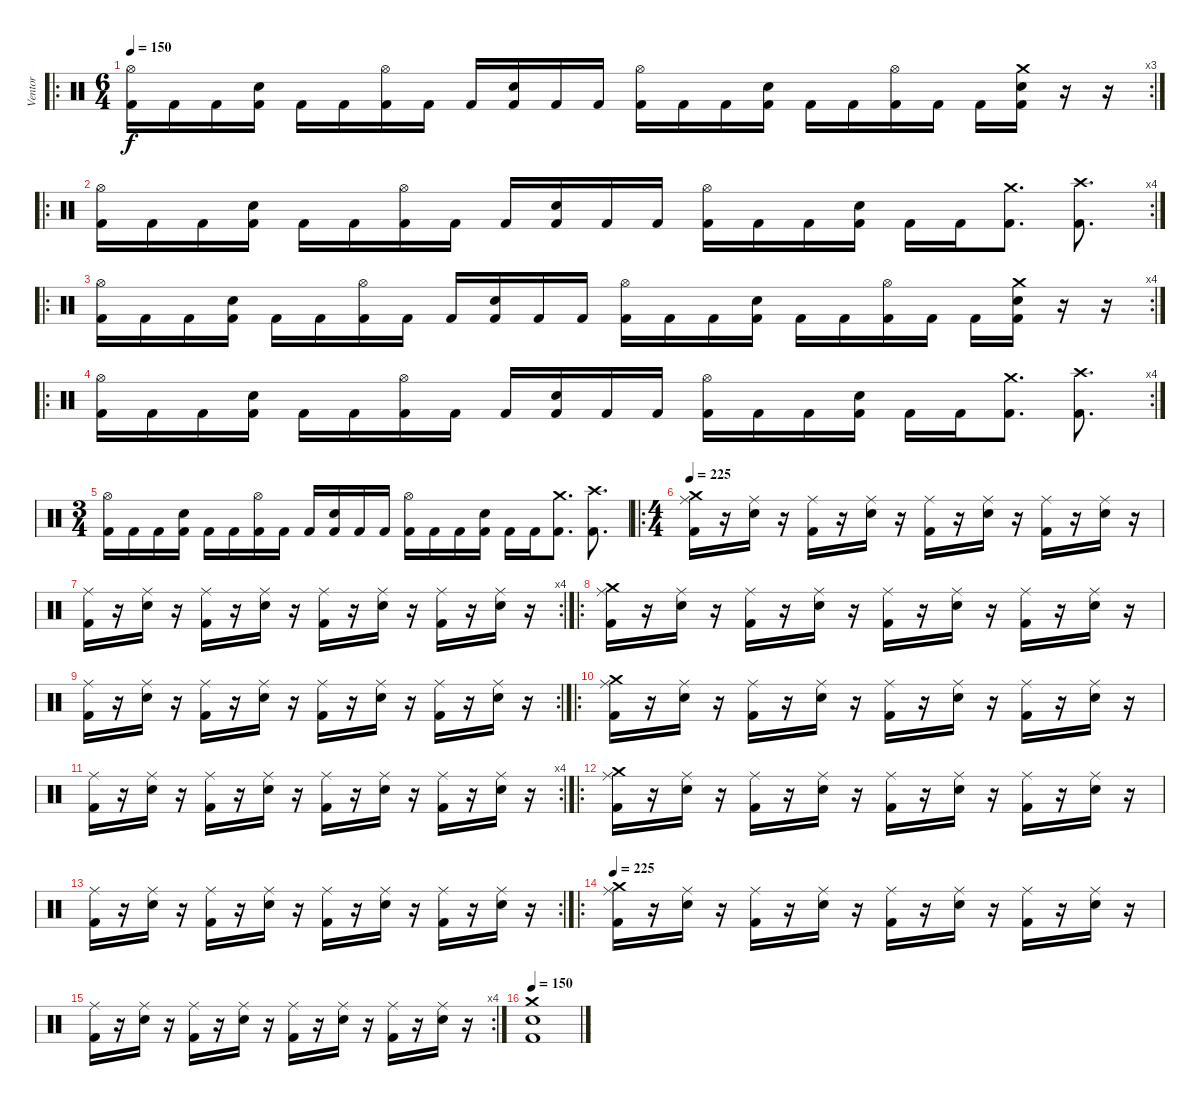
\track ("Ventor" "Ventor") {instrument percussion}
\staff {score}
\articulation defaults
\ro
\rc 3
\ts (6 4)
\tempo 150
\clef neutral
\ks c
("Hi-Hat (open)" "Kick (hit) 2").16{dy f} "Kick (hit) 2".16 "Kick (hit) 2".16 ("Snare (hit) 2" "Kick (hit) 2").16 "Kick (hit) 2".16 "Kick (hit) 2".16 ("Hi-Hat (open)" "Kick (hit) 2").16 "Kick (hit) 2".16 "Kick (hit) 2".16 ("Snare (hit) 2" "Kick (hit) 2").16 "Kick (hit) 2".16 "Kick (hit) 2".16 ("Hi-Hat (open)" "Kick (hit) 2").16 "Kick (hit) 2".16 "Kick (hit) 2".16 ("Snare (hit) 2" "Kick (hit) 2").16 "Kick (hit) 2".16 "Kick (hit) 2".16 ("Hi-Hat (open)" "Kick (hit) 2").16 "Kick (hit) 2".16 "Kick (hit) 2".16 ("Crash medium (hit)" "Snare (hit) 2" "Kick (hit) 2").16 r.16 r.16 |
\ro
\rc 4
("Hi-Hat (open)" "Kick (hit) 2").16 "Kick (hit) 2".16 "Kick (hit) 2".16 ("Snare (hit) 2" "Kick (hit) 2").16 "Kick (hit) 2".16 "Kick (hit) 2".16 ("Hi-Hat (open)" "Kick (hit) 2").16 "Kick (hit) 2".16 "Kick (hit) 2".16 ("Snare (hit) 2" "Kick (hit) 2").16 "Kick (hit) 2".16 "Kick (hit) 2".16 ("Hi-Hat (open)" "Kick (hit) 2").16 "Kick (hit) 2".16 "Kick (hit) 2".16 ("Snare (hit) 2" "Kick (hit) 2").16 "Kick (hit) 2".16 "Kick (hit) 2".16 ("Crash medium (hit)" "Kick (hit) 2").8{d} ("Crash high (hit)" "Kick (hit) 2").8{d} |
\ro
\rc 4
("Hi-Hat (open)" "Kick (hit) 2").16 "Kick (hit) 2".16 "Kick (hit) 2".16 ("Snare (hit) 2" "Kick (hit) 2").16 "Kick (hit) 2".16 "Kick (hit) 2".16 ("Hi-Hat (open)" "Kick (hit) 2").16 "Kick (hit) 2".16 "Kick (hit) 2".16 ("Snare (hit) 2" "Kick (hit) 2").16 "Kick (hit) 2".16 "Kick (hit) 2".16 ("Hi-Hat (open)" "Kick (hit) 2").16 "Kick (hit) 2".16 "Kick (hit) 2".16 ("Snare (hit) 2" "Kick (hit) 2").16 "Kick (hit) 2".16 "Kick (hit) 2".16 ("Hi-Hat (open)" "Kick (hit) 2").16 "Kick (hit) 2".16 "Kick (hit) 2".16 ("Crash medium (hit)" "Snare (hit) 2" "Kick (hit) 2").16 r.16 r.16 |
\ro
\rc 4
("Hi-Hat (open)" "Kick (hit) 2").16 "Kick (hit) 2".16 "Kick (hit) 2".16 ("Snare (hit) 2" "Kick (hit) 2").16 "Kick (hit) 2".16 "Kick (hit) 2".16 ("Hi-Hat (open)" "Kick (hit) 2").16 "Kick (hit) 2".16 "Kick (hit) 2".16 ("Snare (hit) 2" "Kick (hit) 2").16 "Kick (hit) 2".16 "Kick (hit) 2".16 ("Hi-Hat (open)" "Kick (hit) 2").16 "Kick (hit) 2".16 "Kick (hit) 2".16 ("Snare (hit) 2" "Kick (hit) 2").16 "Kick (hit) 2".16 "Kick (hit) 2".16 ("Crash medium (hit)" "Kick (hit) 2").8{d} ("Crash high (hit)" "Kick (hit) 2").8{d} |
\ts (3 4)
("Hi-Hat (open)" "Kick (hit) 2").16 "Kick (hit) 2".16 "Kick (hit) 2".16 ("Snare (hit) 2" "Kick (hit) 2").16 "Kick (hit) 2".16 "Kick (hit) 2".16 ("Hi-Hat (open)" "Kick (hit) 2").16 "Kick (hit) 2".16 "Kick (hit) 2".16 ("Snare (hit) 2" "Kick (hit) 2").16 "Kick (hit) 2".16 "Kick (hit) 2".16 ("Hi-Hat (open)" "Kick (hit) 2").16 "Kick (hit) 2".16 "Kick (hit) 2".16 ("Snare (hit) 2" "Kick (hit) 2").16 "Kick (hit) 2".16 "Kick (hit) 2".16 ("Crash medium (hit)" "Kick (hit) 2").8{d} ("Crash high (hit)" "Kick (hit) 2").8{d} |
\ro
\ts (4 4)
\tempo 225
("Crash medium (hit)" "Ride (middle)" "Kick (hit) 2").16 r.16 ("Ride (middle)" "Snare (hit) 2").16 r.16 ("Ride (middle)" "Kick (hit) 2").16 r.16 ("Ride (middle)" "Snare (hit) 2").16 r.16 ("Ride (middle)" "Kick (hit) 2").16 r.16 ("Ride (middle)" "Snare (hit) 2").16 r.16 ("Ride (middle)" "Kick (hit) 2").16 r.16 ("Ride (middle)" "Snare (hit) 2").16 r.16 |
\rc 4
("Ride (middle)" "Kick (hit) 2").16 r.16 ("Ride (middle)" "Snare (hit) 2").16 r.16 ("Ride (middle)" "Kick (hit) 2").16 r.16 ("Ride (middle)" "Snare (hit) 2").16 r.16 ("Ride (middle)" "Kick (hit) 2").16 r.16 ("Ride (middle)" "Snare (hit) 2").16 r.16 ("Ride (middle)" "Kick (hit) 2").16 r.16 ("Ride (middle)" "Snare (hit) 2").16 r.16 |
\ro
("Crash medium (hit)" "Ride (middle)" "Kick (hit) 2").16 r.16 ("Ride (middle)" "Snare (hit) 2").16 r.16 ("Ride (middle)" "Kick (hit) 2").16 r.16 ("Ride (middle)" "Snare (hit) 2").16 r.16 ("Ride (middle)" "Kick (hit) 2").16 r.16 ("Ride (middle)" "Snare (hit) 2").16 r.16 ("Ride (middle)" "Kick (hit) 2").16 r.16 ("Ride (middle)" "Snare (hit) 2").16 r.16 |
\rc 2
("Ride (middle)" "Kick (hit) 2").16 r.16 ("Ride (middle)" "Snare (hit) 2").16 r.16 ("Ride (middle)" "Kick (hit) 2").16 r.16 ("Ride (middle)" "Snare (hit) 2").16 r.16 ("Ride (middle)" "Kick (hit) 2").16 r.16 ("Ride (middle)" "Snare (hit) 2").16 r.16 ("Ride (middle)" "Kick (hit) 2").16 r.16 ("Ride (middle)" "Snare (hit) 2").16 r.16 |
\ro
("Crash medium (hit)" "Ride (middle)" "Kick (hit) 2").16 r.16 ("Ride (middle)" "Snare (hit) 2").16 r.16 ("Ride (middle)" "Kick (hit) 2").16 r.16 ("Ride (middle)" "Snare (hit) 2").16 r.16 ("Ride (middle)" "Kick (hit) 2").16 r.16 ("Ride (middle)" "Snare (hit) 2").16 r.16 ("Ride (middle)" "Kick (hit) 2").16 r.16 ("Ride (middle)" "Snare (hit) 2").16 r.16 |
\rc 4
("Ride (middle)" "Kick (hit) 2").16 r.16 ("Ride (middle)" "Snare (hit) 2").16 r.16 ("Ride (middle)" "Kick (hit) 2").16 r.16 ("Ride (middle)" "Snare (hit) 2").16 r.16 ("Ride (middle)" "Kick (hit) 2").16 r.16 ("Ride (middle)" "Snare (hit) 2").16 r.16 ("Ride (middle)" "Kick (hit) 2").16 r.16 ("Ride (middle)" "Snare (hit) 2").16 r.16 |
\ro
("Crash medium (hit)" "Ride (middle)" "Kick (hit) 2").16 r.16 ("Ride (middle)" "Snare (hit) 2").16 r.16 ("Ride (middle)" "Kick (hit) 2").16 r.16 ("Ride (middle)" "Snare (hit) 2").16 r.16 ("Ride (middle)" "Kick (hit) 2").16 r.16 ("Ride (middle)" "Snare (hit) 2").16 r.16 ("Ride (middle)" "Kick (hit) 2").16 r.16 ("Ride (middle)" "Snare (hit) 2").16 r.16 |
\rc 2
("Ride (middle)" "Kick (hit) 2").16 r.16 ("Ride (middle)" "Snare (hit) 2").16 r.16 ("Ride (middle)" "Kick (hit) 2").16 r.16 ("Ride (middle)" "Snare (hit) 2").16 r.16 ("Ride (middle)" "Kick (hit) 2").16 r.16 ("Ride (middle)" "Snare (hit) 2").16 r.16 ("Ride (middle)" "Kick (hit) 2").16 r.16 ("Ride (middle)" "Snare (hit) 2").16 r.16 |
\ro
\tempo 225
("Crash medium (hit)" "Ride (middle)" "Kick (hit) 2").16 r.16 ("Ride (middle)" "Snare (hit) 2").16 r.16 ("Ride (middle)" "Kick (hit) 2").16 r.16 ("Ride (middle)" "Snare (hit) 2").16 r.16 ("Ride (middle)" "Kick (hit) 2").16 r.16 ("Ride (middle)" "Snare (hit) 2").16 r.16 ("Ride (middle)" "Kick (hit) 2").16 r.16 ("Ride (middle)" "Snare (hit) 2").16 r.16 |
\rc 4
("Ride (middle)" "Kick (hit) 2").16 r.16 ("Ride (middle)" "Snare (hit) 2").16 r.16 ("Ride (middle)" "Kick (hit) 2").16 r.16 ("Ride (middle)" "Snare (hit) 2").16 r.16 ("Ride (middle)" "Kick (hit) 2").16 r.16 ("Ride (middle)" "Snare (hit) 2").16 r.16 ("Ride (middle)" "Kick (hit) 2").16 r.16 ("Ride (middle)" "Snare (hit) 2").16 r.16 |
\tempo 150
("Crash medium (hit)" "Snare (hit) 2" "Kick (hit) 2").1
